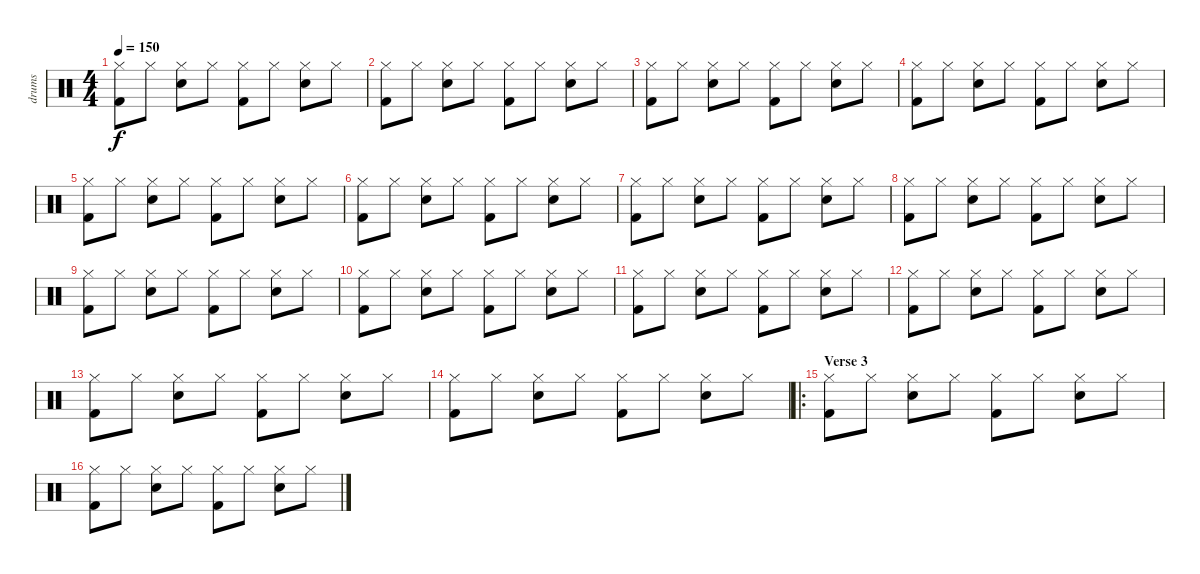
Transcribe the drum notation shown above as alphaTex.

\track ("drums" "drums") {instrument percussion}
\staff {score}
\articulation defaults
\ts (4 4)
\tempo 150
\clef neutral
\ks c
("Hi-Hat (closed)" "Kick (hit) 2").8{dy f} "Hi-Hat (closed)".8 ("Hi-Hat (closed)" "Electric Snare (hit)").8 "Hi-Hat (closed)".8 ("Hi-Hat (closed)" "Kick (hit) 2").8 "Hi-Hat (closed)".8 ("Hi-Hat (closed)" "Electric Snare (hit)").8 "Hi-Hat (closed)".8 |
("Hi-Hat (closed)" "Kick (hit) 2").8 "Hi-Hat (closed)".8 ("Hi-Hat (closed)" "Electric Snare (hit)").8 "Hi-Hat (closed)".8 ("Hi-Hat (closed)" "Kick (hit) 2").8 "Hi-Hat (closed)".8 ("Hi-Hat (closed)" "Electric Snare (hit)").8 "Hi-Hat (closed)".8 |
("Hi-Hat (closed)" "Kick (hit) 2").8 "Hi-Hat (closed)".8 ("Hi-Hat (closed)" "Electric Snare (hit)").8 "Hi-Hat (closed)".8 ("Hi-Hat (closed)" "Kick (hit) 2").8 "Hi-Hat (closed)".8 ("Hi-Hat (closed)" "Electric Snare (hit)").8 "Hi-Hat (closed)".8 |
("Hi-Hat (closed)" "Kick (hit) 2").8 "Hi-Hat (closed)".8 ("Hi-Hat (closed)" "Electric Snare (hit)").8 "Hi-Hat (closed)".8 ("Hi-Hat (closed)" "Kick (hit) 2").8 "Hi-Hat (closed)".8 ("Hi-Hat (closed)" "Electric Snare (hit)").8 "Hi-Hat (closed)".8 |
("Hi-Hat (closed)" "Kick (hit) 2").8 "Hi-Hat (closed)".8 ("Hi-Hat (closed)" "Electric Snare (hit)").8 "Hi-Hat (closed)".8 ("Hi-Hat (closed)" "Kick (hit) 2").8 "Hi-Hat (closed)".8 ("Hi-Hat (closed)" "Electric Snare (hit)").8 "Hi-Hat (closed)".8 |
("Hi-Hat (closed)" "Kick (hit) 2").8 "Hi-Hat (closed)".8 ("Hi-Hat (closed)" "Electric Snare (hit)").8 "Hi-Hat (closed)".8 ("Hi-Hat (closed)" "Kick (hit) 2").8 "Hi-Hat (closed)".8 ("Hi-Hat (closed)" "Electric Snare (hit)").8 "Hi-Hat (closed)".8 |
("Hi-Hat (closed)" "Kick (hit) 2").8 "Hi-Hat (closed)".8 ("Hi-Hat (closed)" "Electric Snare (hit)").8 "Hi-Hat (closed)".8 ("Hi-Hat (closed)" "Kick (hit) 2").8 "Hi-Hat (closed)".8 ("Hi-Hat (closed)" "Electric Snare (hit)").8 "Hi-Hat (closed)".8 |
("Hi-Hat (closed)" "Kick (hit) 2").8 "Hi-Hat (closed)".8 ("Hi-Hat (closed)" "Electric Snare (hit)").8 "Hi-Hat (closed)".8 ("Hi-Hat (closed)" "Kick (hit) 2").8 "Hi-Hat (closed)".8 ("Hi-Hat (closed)" "Electric Snare (hit)").8 "Hi-Hat (closed)".8 |
("Hi-Hat (closed)" "Kick (hit) 2").8 "Hi-Hat (closed)".8 ("Hi-Hat (closed)" "Electric Snare (hit)").8 "Hi-Hat (closed)".8 ("Hi-Hat (closed)" "Kick (hit) 2").8 "Hi-Hat (closed)".8 ("Hi-Hat (closed)" "Electric Snare (hit)").8 "Hi-Hat (closed)".8 |
("Hi-Hat (closed)" "Kick (hit) 2").8 "Hi-Hat (closed)".8 ("Hi-Hat (closed)" "Electric Snare (hit)").8 "Hi-Hat (closed)".8 ("Hi-Hat (closed)" "Kick (hit) 2").8 "Hi-Hat (closed)".8 ("Hi-Hat (closed)" "Electric Snare (hit)").8 "Hi-Hat (closed)".8 |
("Hi-Hat (closed)" "Kick (hit) 2").8 "Hi-Hat (closed)".8 ("Hi-Hat (closed)" "Electric Snare (hit)").8 "Hi-Hat (closed)".8 ("Hi-Hat (closed)" "Kick (hit) 2").8 "Hi-Hat (closed)".8 ("Hi-Hat (closed)" "Electric Snare (hit)").8 "Hi-Hat (closed)".8 |
("Hi-Hat (closed)" "Kick (hit) 2").8 "Hi-Hat (closed)".8 ("Hi-Hat (closed)" "Electric Snare (hit)").8 "Hi-Hat (closed)".8 ("Hi-Hat (closed)" "Kick (hit) 2").8 "Hi-Hat (closed)".8 ("Hi-Hat (closed)" "Electric Snare (hit)").8 "Hi-Hat (closed)".8 |
("Hi-Hat (closed)" "Kick (hit) 2").8 "Hi-Hat (closed)".8 ("Hi-Hat (closed)" "Electric Snare (hit)").8 "Hi-Hat (closed)".8 ("Hi-Hat (closed)" "Kick (hit) 2").8 "Hi-Hat (closed)".8 ("Hi-Hat (closed)" "Electric Snare (hit)").8 "Hi-Hat (closed)".8 |
("Hi-Hat (closed)" "Kick (hit) 2").8 "Hi-Hat (closed)".8 ("Hi-Hat (closed)" "Electric Snare (hit)").8 "Hi-Hat (closed)".8 ("Hi-Hat (closed)" "Kick (hit) 2").8 "Hi-Hat (closed)".8 ("Hi-Hat (closed)" "Electric Snare (hit)").8 "Hi-Hat (closed)".8 |
\ro
\section ("" "Verse 3")
("Hi-Hat (closed)" "Kick (hit) 2").8 "Hi-Hat (closed)".8 ("Hi-Hat (closed)" "Electric Snare (hit)").8 "Hi-Hat (closed)".8 ("Hi-Hat (closed)" "Kick (hit) 2").8 "Hi-Hat (closed)".8 ("Hi-Hat (closed)" "Electric Snare (hit)").8 "Hi-Hat (closed)".8 |
("Hi-Hat (closed)" "Kick (hit) 2").8 "Hi-Hat (closed)".8 ("Hi-Hat (closed)" "Electric Snare (hit)").8 "Hi-Hat (closed)".8 ("Hi-Hat (closed)" "Kick (hit) 2").8 "Hi-Hat (closed)".8 ("Hi-Hat (closed)" "Electric Snare (hit)").8 "Hi-Hat (closed)".8
